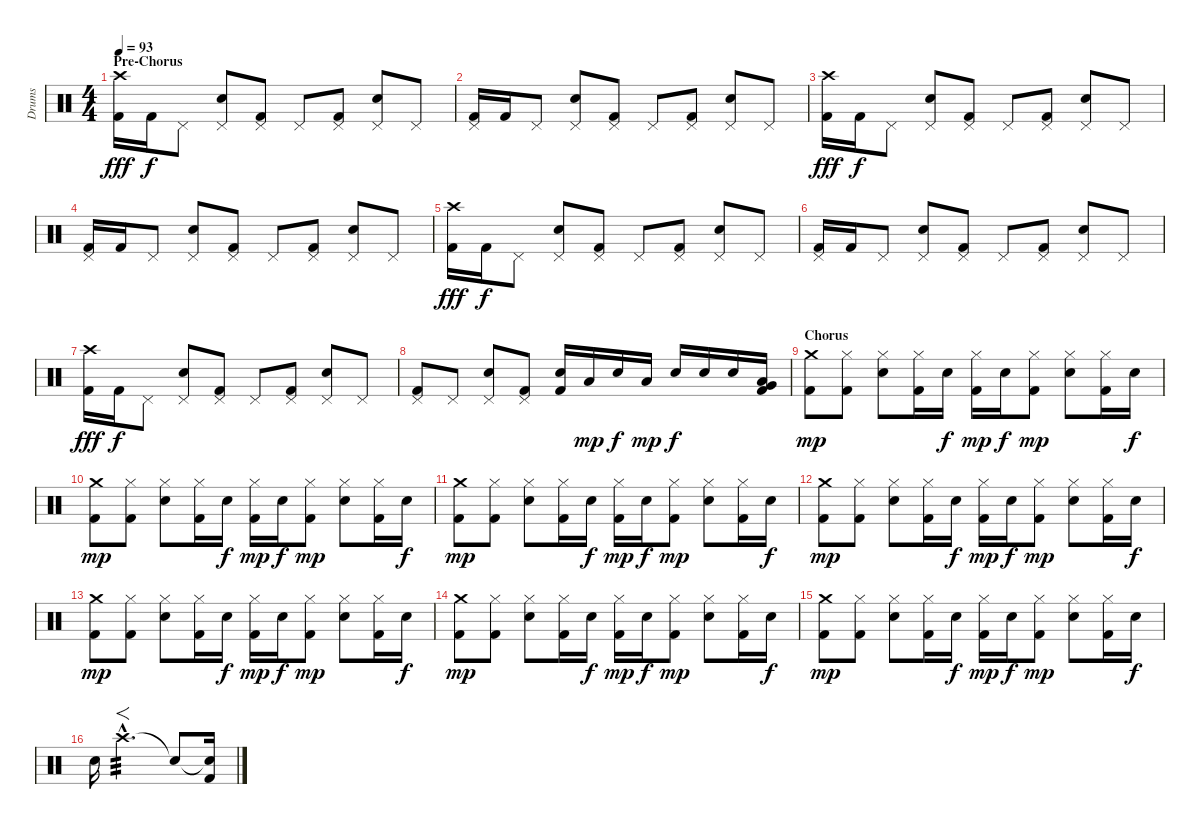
\track ("Drums" "Drums") {instrument percussion}
\staff {score}
\articulation defaults
\ts (4 4)
\section ("" "Pre-Chorus")
\tempo 93
\clef neutral
\ks c
("Crash high (hit)" "Kick (hit) 2").16{dy fff} "Kick (hit) 2".16{dy f} "Pedal Hi-Hat (hit)".8 ("Pedal Hi-Hat (hit)" "Electric Snare (hit)").8 ("Pedal Hi-Hat (hit)" "Kick (hit) 2").8 "Pedal Hi-Hat (hit)".8 ("Pedal Hi-Hat (hit)" "Kick (hit) 2").8 ("Pedal Hi-Hat (hit)" "Electric Snare (hit)").8 "Pedal Hi-Hat (hit)".8 |
("Pedal Hi-Hat (hit)" "Kick (hit) 2").16 "Kick (hit) 2".16 "Pedal Hi-Hat (hit)".8 ("Pedal Hi-Hat (hit)" "Electric Snare (hit)").8 ("Pedal Hi-Hat (hit)" "Kick (hit) 2").8 "Pedal Hi-Hat (hit)".8 ("Pedal Hi-Hat (hit)" "Kick (hit) 2").8 ("Pedal Hi-Hat (hit)" "Electric Snare (hit)").8 "Pedal Hi-Hat (hit)".8 |
("Crash high (hit)" "Kick (hit) 2").16{dy fff} "Kick (hit) 2".16{dy f} "Pedal Hi-Hat (hit)".8 ("Pedal Hi-Hat (hit)" "Electric Snare (hit)").8 ("Pedal Hi-Hat (hit)" "Kick (hit) 2").8 "Pedal Hi-Hat (hit)".8 ("Pedal Hi-Hat (hit)" "Kick (hit) 2").8 ("Pedal Hi-Hat (hit)" "Electric Snare (hit)").8 "Pedal Hi-Hat (hit)".8 |
("Pedal Hi-Hat (hit)" "Kick (hit) 2").16 "Kick (hit) 2".16 "Pedal Hi-Hat (hit)".8 ("Pedal Hi-Hat (hit)" "Electric Snare (hit)").8 ("Pedal Hi-Hat (hit)" "Kick (hit) 2").8 "Pedal Hi-Hat (hit)".8 ("Pedal Hi-Hat (hit)" "Kick (hit) 2").8 ("Pedal Hi-Hat (hit)" "Electric Snare (hit)").8 "Pedal Hi-Hat (hit)".8 |
("Crash high (hit)" "Kick (hit) 2").16{dy fff} "Kick (hit) 2".16{dy f} "Pedal Hi-Hat (hit)".8 ("Pedal Hi-Hat (hit)" "Electric Snare (hit)").8 ("Pedal Hi-Hat (hit)" "Kick (hit) 2").8 "Pedal Hi-Hat (hit)".8 ("Pedal Hi-Hat (hit)" "Kick (hit) 2").8 ("Pedal Hi-Hat (hit)" "Electric Snare (hit)").8 "Pedal Hi-Hat (hit)".8 |
("Pedal Hi-Hat (hit)" "Kick (hit) 2").16 "Kick (hit) 2".16 "Pedal Hi-Hat (hit)".8 ("Pedal Hi-Hat (hit)" "Electric Snare (hit)").8 ("Pedal Hi-Hat (hit)" "Kick (hit) 2").8 "Pedal Hi-Hat (hit)".8 ("Pedal Hi-Hat (hit)" "Kick (hit) 2").8 ("Pedal Hi-Hat (hit)" "Electric Snare (hit)").8 "Pedal Hi-Hat (hit)".8 |
("Crash high (hit)" "Kick (hit) 2").16{dy fff} "Kick (hit) 2".16{dy f} "Pedal Hi-Hat (hit)".8 ("Pedal Hi-Hat (hit)" "Electric Snare (hit)").8 ("Pedal Hi-Hat (hit)" "Kick (hit) 2").8 "Pedal Hi-Hat (hit)".8 ("Pedal Hi-Hat (hit)" "Kick (hit) 2").8 ("Pedal Hi-Hat (hit)" "Electric Snare (hit)").8 "Pedal Hi-Hat (hit)".8 |
("Pedal Hi-Hat (hit)" "Kick (hit) 2").8 "Pedal Hi-Hat (hit)".8 ("Pedal Hi-Hat (hit)" "Electric Snare (hit)").8 ("Pedal Hi-Hat (hit)" "Kick (hit) 2").8 ("Electric Snare (hit)" "Kick (hit) 2").16 "Low Tom (hit)".16{dy mp} "Electric Snare (hit)".16{dy f} "Low Tom (hit)".16{dy mp} "Electric Snare (hit)".16{dy f} "Electric Snare (hit)".16 "Electric Snare (hit)".16 ("Low Tom (hit)" "Very Low Tom (hit)" "Kick (hit) 2").16 |
\section ("" "Chorus")
("Crash medium (hit)" "Kick (hit) 2").8{dy mp} ("Hi-Hat (closed)" "Kick (hit) 2").8 ("Hi-Hat (closed)" "Electric Snare (hit)").8 ("Hi-Hat (closed)" "Kick (hit) 2").16 "Electric Snare (hit)".16{dy f} ("Hi-Hat (closed)" "Kick (hit) 2").16{dy mp} "Electric Snare (hit)".16{dy f} ("Hi-Hat (closed)" "Kick (hit) 2").8{dy mp} ("Hi-Hat (closed)" "Electric Snare (hit)").8 ("Hi-Hat (closed)" "Kick (hit) 2").16 "Electric Snare (hit)".16{dy f} |
("Crash medium (hit)" "Kick (hit) 2").8{dy mp} ("Hi-Hat (closed)" "Kick (hit) 2").8 ("Hi-Hat (closed)" "Electric Snare (hit)").8 ("Hi-Hat (closed)" "Kick (hit) 2").16 "Electric Snare (hit)".16{dy f} ("Hi-Hat (closed)" "Kick (hit) 2").16{dy mp} "Electric Snare (hit)".16{dy f} ("Hi-Hat (closed)" "Kick (hit) 2").8{dy mp} ("Hi-Hat (closed)" "Electric Snare (hit)").8 ("Hi-Hat (closed)" "Kick (hit) 2").16 "Electric Snare (hit)".16{dy f} |
("Crash medium (hit)" "Kick (hit) 2").8{dy mp} ("Hi-Hat (closed)" "Kick (hit) 2").8 ("Hi-Hat (closed)" "Electric Snare (hit)").8 ("Hi-Hat (closed)" "Kick (hit) 2").16 "Electric Snare (hit)".16{dy f} ("Hi-Hat (closed)" "Kick (hit) 2").16{dy mp} "Electric Snare (hit)".16{dy f} ("Hi-Hat (closed)" "Kick (hit) 2").8{dy mp} ("Hi-Hat (closed)" "Electric Snare (hit)").8 ("Hi-Hat (closed)" "Kick (hit) 2").16 "Electric Snare (hit)".16{dy f} |
("Crash medium (hit)" "Kick (hit) 2").8{dy mp} ("Hi-Hat (closed)" "Kick (hit) 2").8 ("Hi-Hat (closed)" "Electric Snare (hit)").8 ("Hi-Hat (closed)" "Kick (hit) 2").16 "Electric Snare (hit)".16{dy f} ("Hi-Hat (closed)" "Kick (hit) 2").16{dy mp} "Electric Snare (hit)".16{dy f} ("Hi-Hat (closed)" "Kick (hit) 2").8{dy mp} ("Hi-Hat (closed)" "Electric Snare (hit)").8 ("Hi-Hat (closed)" "Kick (hit) 2").16 "Electric Snare (hit)".16{dy f} |
("Crash medium (hit)" "Kick (hit) 2").8{dy mp} ("Hi-Hat (closed)" "Kick (hit) 2").8 ("Hi-Hat (closed)" "Electric Snare (hit)").8 ("Hi-Hat (closed)" "Kick (hit) 2").16 "Electric Snare (hit)".16{dy f} ("Hi-Hat (closed)" "Kick (hit) 2").16{dy mp} "Electric Snare (hit)".16{dy f} ("Hi-Hat (closed)" "Kick (hit) 2").8{dy mp} ("Hi-Hat (closed)" "Electric Snare (hit)").8 ("Hi-Hat (closed)" "Kick (hit) 2").16 "Electric Snare (hit)".16{dy f} |
("Crash medium (hit)" "Kick (hit) 2").8{dy mp} ("Hi-Hat (closed)" "Kick (hit) 2").8 ("Hi-Hat (closed)" "Electric Snare (hit)").8 ("Hi-Hat (closed)" "Kick (hit) 2").16 "Electric Snare (hit)".16{dy f} ("Hi-Hat (closed)" "Kick (hit) 2").16{dy mp} "Electric Snare (hit)".16{dy f} ("Hi-Hat (closed)" "Kick (hit) 2").8{dy mp} ("Hi-Hat (closed)" "Electric Snare (hit)").8 ("Hi-Hat (closed)" "Kick (hit) 2").16 "Electric Snare (hit)".16{dy f} |
("Crash medium (hit)" "Kick (hit) 2").8{dy mp} ("Hi-Hat (closed)" "Kick (hit) 2").8 ("Hi-Hat (closed)" "Electric Snare (hit)").8 ("Hi-Hat (closed)" "Kick (hit) 2").16 "Electric Snare (hit)".16{dy f} ("Hi-Hat (closed)" "Kick (hit) 2").16{dy mp} "Electric Snare (hit)".16{dy f} ("Hi-Hat (closed)" "Kick (hit) 2").8{dy mp} ("Hi-Hat (closed)" "Electric Snare (hit)").8 ("Hi-Hat (closed)" "Kick (hit) 2").16 "Electric Snare (hit)".16{dy f} |
"Electric Snare (hit)".16 "Crash high (hit)"{hac}.2{f d tp 3} "Snare (hit)"{t}.8 ("Snare (hit)"{t} "Kick (hit) 2").16
